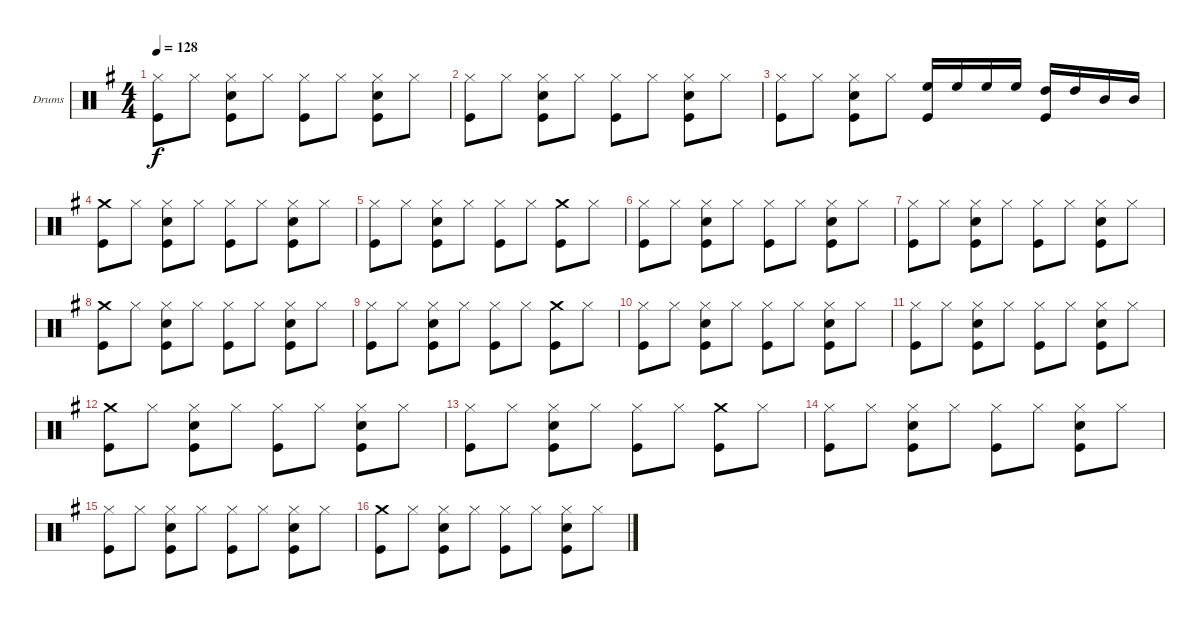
\bracketExtendMode groupsimilarinstruments
\firstSystemTrackNameOrientation horizontal
\otherSystemsTrackNameOrientation horizontal
\track ("Drumkit" "Drums") {multiBarRest instrument percussion}
\staff {score}
\articulation defaults
\ts (4 4)
\tempo 128
\clef neutral
\ks eminor
("Hi-Hat (closed)" "Kick (hit)").8{dy f} "Hi-Hat (closed)".8 ("Hi-Hat (closed)" "Snare (hit) 2" "Kick (hit)").8 "Hi-Hat (closed)".8 ("Hi-Hat (closed)" "Kick (hit)").8 "Hi-Hat (closed)".8 ("Hi-Hat (closed)" "Snare (hit) 2" "Kick (hit)").8 "Hi-Hat (closed)".8 |
("Hi-Hat (closed)" "Kick (hit)").8 "Hi-Hat (closed)".8 ("Hi-Hat (closed)" "Snare (hit) 2" "Kick (hit)").8 "Hi-Hat (closed)".8 ("Hi-Hat (closed)" "Kick (hit)").8 "Hi-Hat (closed)".8 ("Hi-Hat (closed)" "Snare (hit) 2" "Kick (hit)").8 "Hi-Hat (closed)".8 |
("Hi-Hat (closed)" "Kick (hit)").8 "Hi-Hat (closed)".8 ("Hi-Hat (closed)" "Snare (hit) 2" "Kick (hit)").8 "Hi-Hat (closed)".8 ("High Floor Tom (hit)" "Kick (hit)").16 "High Floor Tom (hit)".16 "High Floor Tom (hit)".16 "High Floor Tom (hit)".16 ("High Tom (hit)" "Kick (hit)").16 "High Tom (hit)".16 "Mid Tom (hit)".16 "Mid Tom (hit)".16 |
("Crash medium (hit)" "Kick (hit)").8 "Hi-Hat (closed)".8 ("Hi-Hat (closed)" "Snare (hit) 2" "Kick (hit)").8 "Hi-Hat (closed)".8 ("Hi-Hat (closed)" "Kick (hit)").8 "Hi-Hat (closed)".8 ("Hi-Hat (closed)" "Snare (hit) 2" "Kick (hit)").8 "Hi-Hat (closed)".8 |
("Hi-Hat (closed)" "Kick (hit)").8 "Hi-Hat (closed)".8 ("Hi-Hat (closed)" "Snare (hit) 2" "Kick (hit)").8 "Hi-Hat (closed)".8 ("Hi-Hat (closed)" "Kick (hit)").8 "Hi-Hat (closed)".8 ("Crash medium (hit)" "Kick (hit)").8 "Hi-Hat (closed)".8 |
("Hi-Hat (closed)" "Kick (hit)").8 "Hi-Hat (closed)".8 ("Hi-Hat (closed)" "Snare (hit) 2" "Kick (hit)").8 "Hi-Hat (closed)".8 ("Hi-Hat (closed)" "Kick (hit)").8 "Hi-Hat (closed)".8 ("Hi-Hat (closed)" "Snare (hit) 2" "Kick (hit)").8 "Hi-Hat (closed)".8 |
("Hi-Hat (closed)" "Kick (hit)").8 "Hi-Hat (closed)".8 ("Hi-Hat (closed)" "Snare (hit) 2" "Kick (hit)").8 "Hi-Hat (closed)".8 ("Hi-Hat (closed)" "Kick (hit)").8 "Hi-Hat (closed)".8 ("Hi-Hat (closed)" "Snare (hit) 2" "Kick (hit)").8 "Hi-Hat (closed)".8 |
("Crash medium (hit)" "Kick (hit)").8 "Hi-Hat (closed)".8 ("Hi-Hat (closed)" "Snare (hit) 2" "Kick (hit)").8 "Hi-Hat (closed)".8 ("Hi-Hat (closed)" "Kick (hit)").8 "Hi-Hat (closed)".8 ("Hi-Hat (closed)" "Snare (hit) 2" "Kick (hit)").8 "Hi-Hat (closed)".8 |
("Hi-Hat (closed)" "Kick (hit)").8 "Hi-Hat (closed)".8 ("Hi-Hat (closed)" "Snare (hit) 2" "Kick (hit)").8 "Hi-Hat (closed)".8 ("Hi-Hat (closed)" "Kick (hit)").8 "Hi-Hat (closed)".8 ("Crash medium (hit)" "Kick (hit)").8 "Hi-Hat (closed)".8 |
("Hi-Hat (closed)" "Kick (hit)").8 "Hi-Hat (closed)".8 ("Hi-Hat (closed)" "Snare (hit) 2" "Kick (hit)").8 "Hi-Hat (closed)".8 ("Hi-Hat (closed)" "Kick (hit)").8 "Hi-Hat (closed)".8 ("Hi-Hat (closed)" "Snare (hit) 2" "Kick (hit)").8 "Hi-Hat (closed)".8 |
("Hi-Hat (closed)" "Kick (hit)").8 "Hi-Hat (closed)".8 ("Hi-Hat (closed)" "Snare (hit) 2" "Kick (hit)").8 "Hi-Hat (closed)".8 ("Hi-Hat (closed)" "Kick (hit)").8 "Hi-Hat (closed)".8 ("Hi-Hat (closed)" "Snare (hit) 2" "Kick (hit)").8 "Hi-Hat (closed)".8 |
("Crash medium (hit)" "Kick (hit)").8 "Hi-Hat (closed)".8 ("Hi-Hat (closed)" "Snare (hit) 2" "Kick (hit)").8 "Hi-Hat (closed)".8 ("Hi-Hat (closed)" "Kick (hit)").8 "Hi-Hat (closed)".8 ("Hi-Hat (closed)" "Snare (hit) 2" "Kick (hit)").8 "Hi-Hat (closed)".8 |
("Hi-Hat (closed)" "Kick (hit)").8 "Hi-Hat (closed)".8 ("Hi-Hat (closed)" "Snare (hit) 2" "Kick (hit)").8 "Hi-Hat (closed)".8 ("Hi-Hat (closed)" "Kick (hit)").8 "Hi-Hat (closed)".8 ("Crash medium (hit)" "Kick (hit)").8 "Hi-Hat (closed)".8 |
("Hi-Hat (closed)" "Kick (hit)").8 "Hi-Hat (closed)".8 ("Hi-Hat (closed)" "Snare (hit) 2" "Kick (hit)").8 "Hi-Hat (closed)".8 ("Hi-Hat (closed)" "Kick (hit)").8 "Hi-Hat (closed)".8 ("Hi-Hat (closed)" "Snare (hit) 2" "Kick (hit)").8 "Hi-Hat (closed)".8 |
("Hi-Hat (closed)" "Kick (hit)").8 "Hi-Hat (closed)".8 ("Hi-Hat (closed)" "Snare (hit) 2" "Kick (hit)").8 "Hi-Hat (closed)".8 ("Hi-Hat (closed)" "Kick (hit)").8 "Hi-Hat (closed)".8 ("Hi-Hat (closed)" "Snare (hit) 2" "Kick (hit)").8 "Hi-Hat (closed)".8 |
("Crash medium (hit)" "Kick (hit)").8 "Hi-Hat (closed)".8 ("Hi-Hat (closed)" "Snare (hit) 2" "Kick (hit)").8 "Hi-Hat (closed)".8 ("Hi-Hat (closed)" "Kick (hit)").8 "Hi-Hat (closed)".8 ("Hi-Hat (closed)" "Snare (hit) 2" "Kick (hit)").8 "Hi-Hat (closed)".8
